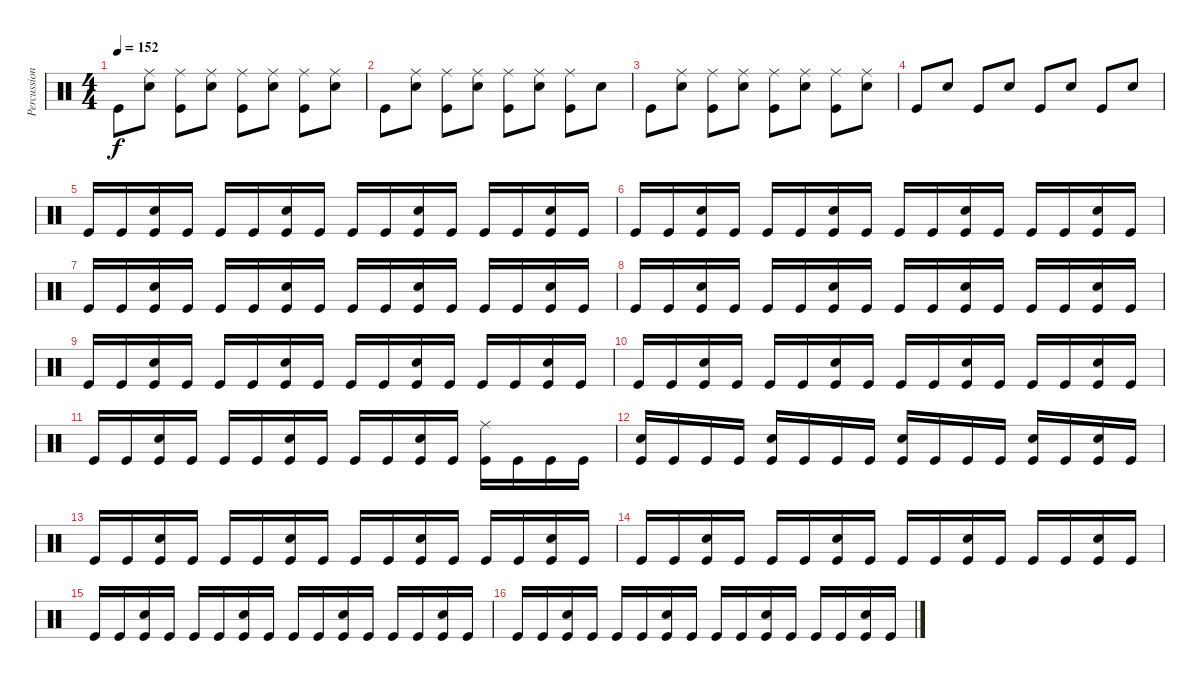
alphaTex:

\track ("Percussion" "Percussion") {instrument percussion}
\staff {score}
\articulation defaults
\ts (4 4)
\tempo 152
\clef neutral
\ks c "Kick (hit)".8{dy f}
("Ride (middle)" "Snare (hit) 2").8 ("Ride (middle)" "Kick (hit)").8 ("Ride (middle)" "Snare (hit) 2").8 ("Ride (middle)" "Kick (hit)").8 ("Ride (middle)" "Snare (hit) 2").8 ("Ride (middle)" "Kick (hit)").8 ("Ride (middle)" "Snare (hit) 2").8 |
"Kick (hit)".8 ("Ride (middle)" "Snare (hit) 2").8 ("Ride (middle)" "Kick (hit)").8 ("Ride (middle)" "Snare (hit) 2").8 ("Ride (middle)" "Kick (hit)").8 ("Ride (middle)" "Snare (hit) 2").8 ("Ride (middle)" "Kick (hit)").8 "Snare (hit) 2".8 |
"Kick (hit)".8 ("Ride (middle)" "Snare (hit) 2").8 ("Ride (middle)" "Kick (hit)").8 ("Ride (middle)" "Snare (hit) 2").8 ("Ride (middle)" "Kick (hit)").8 ("Ride (middle)" "Snare (hit) 2").8 ("Ride (middle)" "Kick (hit)").8 ("Ride (middle)" "Snare (hit) 2").8 |
"Kick (hit)".8 "Snare (hit) 2".8 "Kick (hit)".8 "Snare (hit) 2".8 "Kick (hit)".8 "Snare (hit) 2".8 "Kick (hit)".8 "Snare (hit) 2".8 |
"Kick (hit)".16 "Kick (hit)".16 ("Snare (hit) 2" "Kick (hit)").16 "Kick (hit)".16 "Kick (hit)".16 "Kick (hit)".16 ("Snare (hit) 2" "Kick (hit)").16 "Kick (hit)".16 "Kick (hit)".16 "Kick (hit)".16 ("Snare (hit) 2" "Kick (hit)").16 "Kick (hit)".16 "Kick (hit)".16 "Kick (hit)".16 ("Snare (hit) 2" "Kick (hit)").16 "Kick (hit)".16 |
"Kick (hit)".16 "Kick (hit)".16 ("Snare (hit) 2" "Kick (hit)").16 "Kick (hit)".16 "Kick (hit)".16 "Kick (hit)".16 ("Snare (hit) 2" "Kick (hit)").16 "Kick (hit)".16 "Kick (hit)".16 "Kick (hit)".16 ("Snare (hit) 2" "Kick (hit)").16 "Kick (hit)".16 "Kick (hit)".16 "Kick (hit)".16 ("Snare (hit) 2" "Kick (hit)").16 "Kick (hit)".16 |
"Kick (hit)".16 "Kick (hit)".16 ("Snare (hit) 2" "Kick (hit)").16 "Kick (hit)".16 "Kick (hit)".16 "Kick (hit)".16 ("Snare (hit) 2" "Kick (hit)").16 "Kick (hit)".16 "Kick (hit)".16 "Kick (hit)".16 ("Snare (hit) 2" "Kick (hit)").16 "Kick (hit)".16 "Kick (hit)".16 "Kick (hit)".16 ("Snare (hit) 2" "Kick (hit)").16 "Kick (hit)".16 |
"Kick (hit)".16 "Kick (hit)".16 ("Snare (hit) 2" "Kick (hit)").16 "Kick (hit)".16 "Kick (hit)".16 "Kick (hit)".16 ("Snare (hit) 2" "Kick (hit)").16 "Kick (hit)".16 "Kick (hit)".16 "Kick (hit)".16 ("Snare (hit) 2" "Kick (hit)").16 "Kick (hit)".16 "Kick (hit)".16 "Kick (hit)".16 ("Snare (hit) 2" "Kick (hit)").16 "Kick (hit)".16 |
"Kick (hit)".16 "Kick (hit)".16 ("Snare (hit) 2" "Kick (hit)").16 "Kick (hit)".16 "Kick (hit)".16 "Kick (hit)".16 ("Snare (hit) 2" "Kick (hit)").16 "Kick (hit)".16 "Kick (hit)".16 "Kick (hit)".16 ("Snare (hit) 2" "Kick (hit)").16 "Kick (hit)".16 "Kick (hit)".16 "Kick (hit)".16 ("Snare (hit) 2" "Kick (hit)").16 "Kick (hit)".16 |
"Kick (hit)".16 "Kick (hit)".16 ("Snare (hit) 2" "Kick (hit)").16 "Kick (hit)".16 "Kick (hit)".16 "Kick (hit)".16 ("Snare (hit) 2" "Kick (hit)").16 "Kick (hit)".16 "Kick (hit)".16 "Kick (hit)".16 ("Snare (hit) 2" "Kick (hit)").16 "Kick (hit)".16 "Kick (hit)".16 "Kick (hit)".16 ("Snare (hit) 2" "Kick (hit)").16 "Kick (hit)".16 |
"Kick (hit)".16 "Kick (hit)".16 ("Snare (hit) 2" "Kick (hit)").16 "Kick (hit)".16 "Kick (hit)".16 "Kick (hit)".16 ("Snare (hit) 2" "Kick (hit)").16 "Kick (hit)".16 "Kick (hit)".16 "Kick (hit)".16 ("Snare (hit) 2" "Kick (hit)").16 "Kick (hit)".16 ("Ride (middle)" "Kick (hit)").16 "Kick (hit)".16 "Kick (hit)".16 "Kick (hit)".16 |
("Snare (hit) 2" "Kick (hit)").16 "Kick (hit)".16 "Kick (hit)".16 "Kick (hit)".16 ("Snare (hit) 2" "Kick (hit)").16 "Kick (hit)".16 "Kick (hit)".16 "Kick (hit)".16 ("Snare (hit) 2" "Kick (hit)").16 "Kick (hit)".16 "Kick (hit)".16 "Kick (hit)".16 ("Snare (hit) 2" "Kick (hit)").16 "Kick (hit)".16 ("Snare (hit) 2" "Kick (hit)").16 "Kick (hit)".16 |
"Kick (hit)".16 "Kick (hit)".16 ("Snare (hit) 2" "Kick (hit)").16 "Kick (hit)".16 "Kick (hit)".16 "Kick (hit)".16 ("Snare (hit) 2" "Kick (hit)").16 "Kick (hit)".16 "Kick (hit)".16 "Kick (hit)".16 ("Snare (hit) 2" "Kick (hit)").16 "Kick (hit)".16 "Kick (hit)".16 "Kick (hit)".16 ("Snare (hit) 2" "Kick (hit)").16 "Kick (hit)".16 |
"Kick (hit)".16 "Kick (hit)".16 ("Snare (hit) 2" "Kick (hit)").16 "Kick (hit)".16 "Kick (hit)".16 "Kick (hit)".16 ("Snare (hit) 2" "Kick (hit)").16 "Kick (hit)".16 "Kick (hit)".16 "Kick (hit)".16 ("Snare (hit) 2" "Kick (hit)").16 "Kick (hit)".16 "Kick (hit)".16 "Kick (hit)".16 ("Snare (hit) 2" "Kick (hit)").16 "Kick (hit)".16 |
"Kick (hit)".16 "Kick (hit)".16 ("Snare (hit) 2" "Kick (hit)").16 "Kick (hit)".16 "Kick (hit)".16 "Kick (hit)".16 ("Snare (hit) 2" "Kick (hit)").16 "Kick (hit)".16 "Kick (hit)".16 "Kick (hit)".16 ("Snare (hit) 2" "Kick (hit)").16 "Kick (hit)".16 "Kick (hit)".16 "Kick (hit)".16 ("Snare (hit) 2" "Kick (hit)").16 "Kick (hit)".16 |
"Kick (hit)".16 "Kick (hit)".16 ("Snare (hit) 2" "Kick (hit)").16 "Kick (hit)".16 "Kick (hit)".16 "Kick (hit)".16 ("Snare (hit) 2" "Kick (hit)").16 "Kick (hit)".16 "Kick (hit)".16 "Kick (hit)".16 ("Snare (hit) 2" "Kick (hit)").16 "Kick (hit)".16 "Kick (hit)".16 "Kick (hit)".16 ("Snare (hit) 2" "Kick (hit)").16 "Kick (hit)".16
